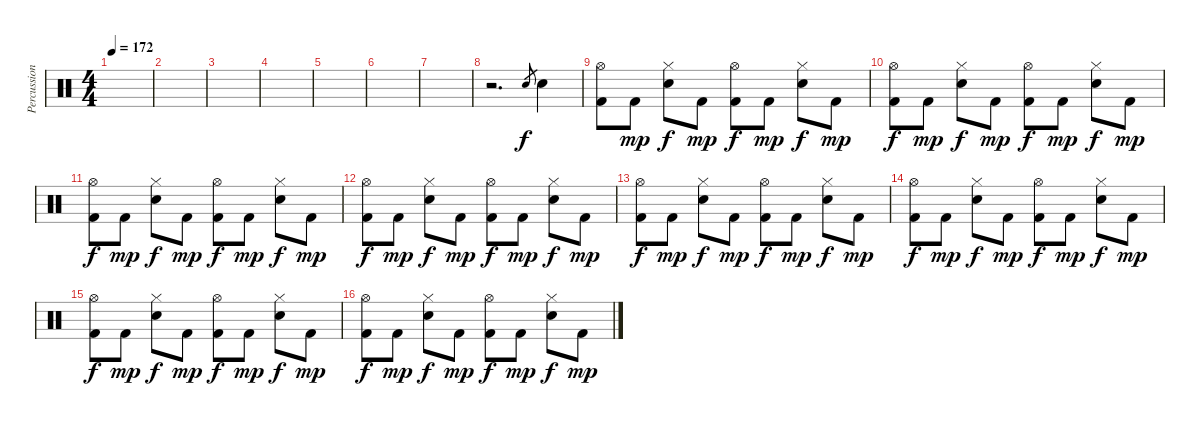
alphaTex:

\track ("Percussions" "Percussion") {instrument percussion}
\staff {score}
\articulation defaults
\ts (4 4)
\tempo 172
\clef neutral
\ks c
|
|
|
|
|
|
|
r.2{d} "Snare (hit) 2".8{gr} "Snare (hit) 2".4 |
("Hi-Hat (open)" "Kick (hit) 2").8{dy f} "Kick (hit) 2".8{dy mp} ("Hi-Hat (closed)" "Snare (hit) 2").8{dy f} "Kick (hit) 2".8{dy mp} ("Hi-Hat (open)" "Kick (hit) 2").8{dy f} "Kick (hit) 2".8{dy mp} ("Hi-Hat (closed)" "Snare (hit) 2").8{dy f} "Kick (hit) 2".8{dy mp} |
("Hi-Hat (open)" "Kick (hit) 2").8{dy f} "Kick (hit) 2".8{dy mp} ("Hi-Hat (closed)" "Snare (hit) 2").8{dy f} "Kick (hit) 2".8{dy mp} ("Hi-Hat (open)" "Kick (hit) 2").8{dy f} "Kick (hit) 2".8{dy mp} ("Hi-Hat (closed)" "Snare (hit) 2").8{dy f} "Kick (hit) 2".8{dy mp} |
("Hi-Hat (open)" "Kick (hit) 2").8{dy f} "Kick (hit) 2".8{dy mp} ("Hi-Hat (closed)" "Snare (hit) 2").8{dy f} "Kick (hit) 2".8{dy mp} ("Hi-Hat (open)" "Kick (hit) 2").8{dy f} "Kick (hit) 2".8{dy mp} ("Hi-Hat (closed)" "Snare (hit) 2").8{dy f} "Kick (hit) 2".8{dy mp} |
("Hi-Hat (open)" "Kick (hit) 2").8{dy f} "Kick (hit) 2".8{dy mp} ("Hi-Hat (closed)" "Snare (hit) 2").8{dy f} "Kick (hit) 2".8{dy mp} ("Hi-Hat (open)" "Kick (hit) 2").8{dy f} "Kick (hit) 2".8{dy mp} ("Hi-Hat (closed)" "Snare (hit) 2").8{dy f} "Kick (hit) 2".8{dy mp} |
("Hi-Hat (open)" "Kick (hit) 2").8{dy f} "Kick (hit) 2".8{dy mp} ("Hi-Hat (closed)" "Snare (hit) 2").8{dy f} "Kick (hit) 2".8{dy mp} ("Hi-Hat (open)" "Kick (hit) 2").8{dy f} "Kick (hit) 2".8{dy mp} ("Hi-Hat (closed)" "Snare (hit) 2").8{dy f} "Kick (hit) 2".8{dy mp} |
("Hi-Hat (open)" "Kick (hit) 2").8{dy f} "Kick (hit) 2".8{dy mp} ("Hi-Hat (closed)" "Snare (hit) 2").8{dy f} "Kick (hit) 2".8{dy mp} ("Hi-Hat (open)" "Kick (hit) 2").8{dy f} "Kick (hit) 2".8{dy mp} ("Hi-Hat (closed)" "Snare (hit) 2").8{dy f} "Kick (hit) 2".8{dy mp} |
("Hi-Hat (open)" "Kick (hit) 2").8{dy f} "Kick (hit) 2".8{dy mp} ("Hi-Hat (closed)" "Snare (hit) 2").8{dy f} "Kick (hit) 2".8{dy mp} ("Hi-Hat (open)" "Kick (hit) 2").8{dy f} "Kick (hit) 2".8{dy mp} ("Hi-Hat (closed)" "Snare (hit) 2").8{dy f} "Kick (hit) 2".8{dy mp} |
("Hi-Hat (open)" "Kick (hit) 2").8{dy f} "Kick (hit) 2".8{dy mp} ("Hi-Hat (closed)" "Snare (hit) 2").8{dy f} "Kick (hit) 2".8{dy mp} ("Hi-Hat (open)" "Kick (hit) 2").8{dy f} "Kick (hit) 2".8{dy mp} ("Hi-Hat (closed)" "Snare (hit) 2").8{dy f} "Kick (hit) 2".8{dy mp}
